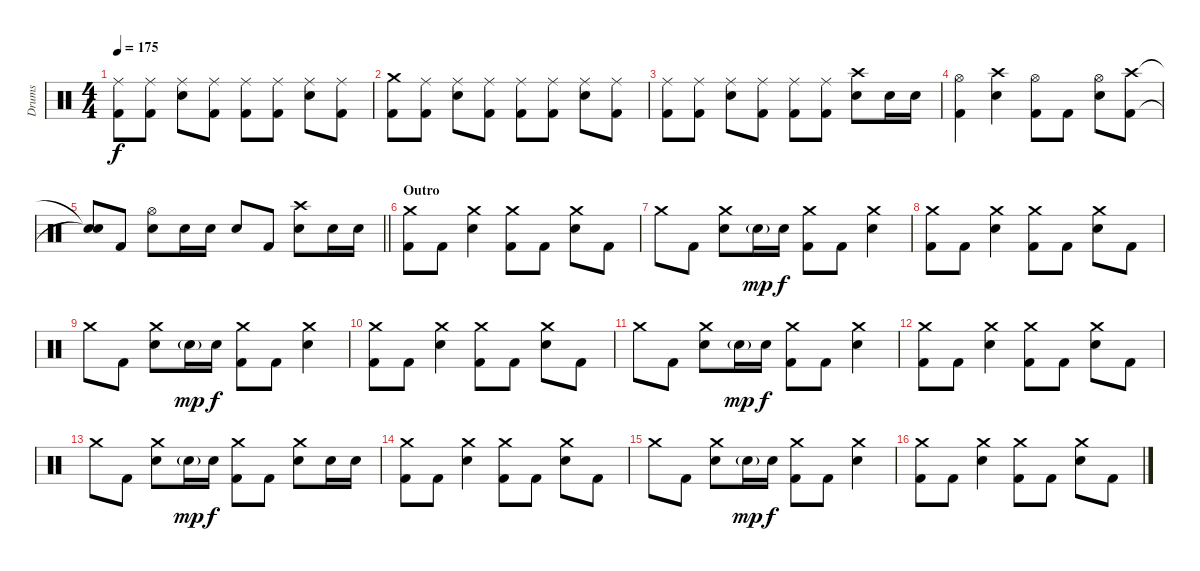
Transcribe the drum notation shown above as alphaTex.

\track ("Drums" "Drums") {instrument percussion}
\staff {score}
\articulation defaults
\ts (4 4)
\tempo 175
\clef neutral
\ks c
("Ride (middle)" "Kick (hit) 2").8{dy f} ("Ride (middle)" "Kick (hit) 2").8 ("Ride (middle)" "Electric Snare (hit)").8 ("Ride (middle)" "Kick (hit) 2").8 ("Ride (middle)" "Kick (hit) 2").8 ("Ride (middle)" "Kick (hit) 2").8 ("Ride (middle)" "Electric Snare (hit)").8 ("Ride (middle)" "Kick (hit) 2").8 |
("Crash medium (hit)" "Kick (hit) 2").8 ("Ride (middle)" "Kick (hit) 2").8 ("Ride (middle)" "Electric Snare (hit)").8 ("Ride (middle)" "Kick (hit) 2").8 ("Ride (middle)" "Kick (hit) 2").8 ("Ride (middle)" "Kick (hit) 2").8 ("Ride (middle)" "Electric Snare (hit)").8 ("Ride (middle)" "Kick (hit) 2").8 |
("Ride (middle)" "Kick (hit) 2").8 ("Ride (middle)" "Kick (hit) 2").8 ("Ride (middle)" "Electric Snare (hit)").8 ("Ride (middle)" "Kick (hit) 2").8 ("Ride (middle)" "Kick (hit) 2").8 ("Ride (middle)" "Kick (hit) 2").8 ("Crash high (hit)" "Electric Snare (hit)").8 "Electric Snare (hit)".16 "Electric Snare (hit)".16 |
("Hi-Hat (open)" "Kick (hit) 2").4 ("Crash high (hit)" "Electric Snare (hit)").4 ("Hi-Hat (open)" "Kick (hit) 2").8 "Kick (hit) 2".8 ("Hi-Hat (open)" "Electric Snare (hit)").8 ("Crash high (hit)" "Kick (hit) 2").8 |
\barLineRight lightlight
("Snare (hit)"{t} "Snare (hit)"{t}).8 "Kick (hit) 2".8 ("Hi-Hat (open)" "Electric Snare (hit)").8 "Electric Snare (hit)".16 "Electric Snare (hit)".16 "Electric Snare (hit)".8 "Kick (hit) 2".8 ("Crash high (hit)" "Electric Snare (hit)").8 "Electric Snare (hit)".16 "Electric Snare (hit)".16 |
\section ("" "Outro")
("Crash medium (hit)" "Kick (hit) 2").8 "Kick (hit) 2".8 ("Crash medium (hit)" "Electric Snare (hit)").4 ("Crash medium (hit)" "Kick (hit) 2").8 "Kick (hit) 2".8 ("Crash medium (hit)" "Electric Snare (hit)").8 "Kick (hit) 2".8 |
"Crash medium (hit)".8 "Kick (hit) 2".8 ("Crash medium (hit)" "Electric Snare (hit)").8 "Electric Snare (hit)"{g}.16{dy mp} "Electric Snare (hit)".16{dy f} ("Crash medium (hit)" "Kick (hit) 2").8 "Kick (hit) 2".8 ("Crash medium (hit)" "Electric Snare (hit)").4 |
("Crash medium (hit)" "Kick (hit) 2").8 "Kick (hit) 2".8 ("Crash medium (hit)" "Electric Snare (hit)").4 ("Crash medium (hit)" "Kick (hit) 2").8 "Kick (hit) 2".8 ("Crash medium (hit)" "Electric Snare (hit)").8 "Kick (hit) 2".8 |
"Crash medium (hit)".8 "Kick (hit) 2".8 ("Crash medium (hit)" "Electric Snare (hit)").8 "Electric Snare (hit)"{g}.16{dy mp} "Electric Snare (hit)".16{dy f} ("Crash medium (hit)" "Kick (hit) 2").8 "Kick (hit) 2".8 ("Crash medium (hit)" "Electric Snare (hit)").4 |
("Crash medium (hit)" "Kick (hit) 2").8 "Kick (hit) 2".8 ("Crash medium (hit)" "Electric Snare (hit)").4 ("Crash medium (hit)" "Kick (hit) 2").8 "Kick (hit) 2".8 ("Crash medium (hit)" "Electric Snare (hit)").8 "Kick (hit) 2".8 |
"Crash medium (hit)".8 "Kick (hit) 2".8 ("Crash medium (hit)" "Electric Snare (hit)").8 "Electric Snare (hit)"{g}.16{dy mp} "Electric Snare (hit)".16{dy f} ("Crash medium (hit)" "Kick (hit) 2").8 "Kick (hit) 2".8 ("Crash medium (hit)" "Electric Snare (hit)").4 |
("Crash medium (hit)" "Kick (hit) 2").8 "Kick (hit) 2".8 ("Crash medium (hit)" "Electric Snare (hit)").4 ("Crash medium (hit)" "Kick (hit) 2").8 "Kick (hit) 2".8 ("Crash medium (hit)" "Electric Snare (hit)").8 "Kick (hit) 2".8 |
"Crash medium (hit)".8 "Kick (hit) 2".8 ("Crash medium (hit)" "Electric Snare (hit)").8 "Electric Snare (hit)"{g}.16{dy mp} "Electric Snare (hit)".16{dy f} ("Crash medium (hit)" "Kick (hit) 2").8 "Kick (hit) 2".8 ("Crash medium (hit)" "Electric Snare (hit)").8 "Electric Snare (hit)".16 "Electric Snare (hit)".16 |
("Crash medium (hit)" "Kick (hit) 2").8 "Kick (hit) 2".8 ("Crash medium (hit)" "Electric Snare (hit)").4 ("Crash medium (hit)" "Kick (hit) 2").8 "Kick (hit) 2".8 ("Crash medium (hit)" "Electric Snare (hit)").8 "Kick (hit) 2".8 |
"Crash medium (hit)".8 "Kick (hit) 2".8 ("Crash medium (hit)" "Electric Snare (hit)").8 "Electric Snare (hit)"{g}.16{dy mp} "Electric Snare (hit)".16{dy f} ("Crash medium (hit)" "Kick (hit) 2").8 "Kick (hit) 2".8 ("Crash medium (hit)" "Electric Snare (hit)").4 |
("Crash medium (hit)" "Kick (hit) 2").8 "Kick (hit) 2".8 ("Crash medium (hit)" "Electric Snare (hit)").4 ("Crash medium (hit)" "Kick (hit) 2").8 "Kick (hit) 2".8 ("Crash medium (hit)" "Electric Snare (hit)").8 "Kick (hit) 2".8
